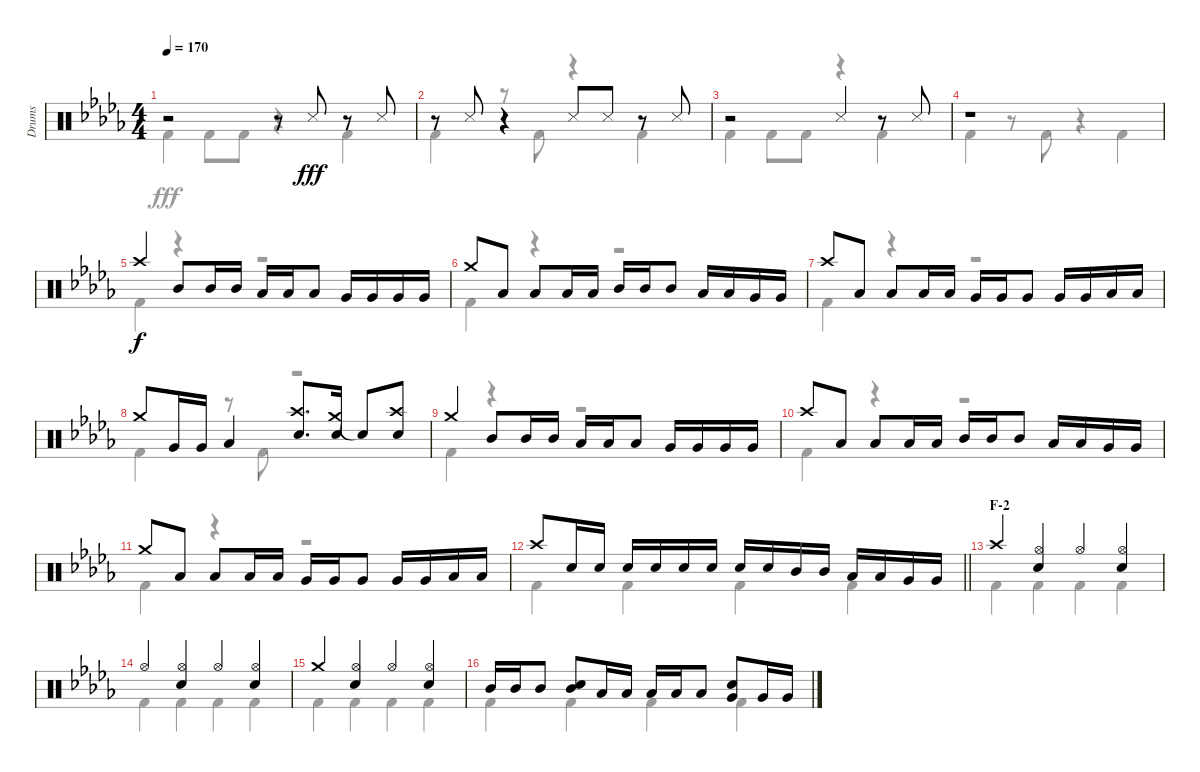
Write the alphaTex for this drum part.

\track ("Drums" "Drums") {instrument percussion}
\staff {score}
\articulation defaults
\voice
\ts (4 4)
\tempo 170
\clef neutral
\ks db
r.2{dy fff} r.8 "Snare (side stick) 3".8 r.8 "Snare (side stick) 3".8 |
r.8 "Snare (side stick) 3".8 r.4 "Snare (side stick) 3".8 "Snare (side stick) 3".8 r.8 "Snare (side stick) 3".8 |
r.2 "Snare (side stick) 3".4 r.8 "Snare (side stick) 3".8 |
r.1 |
"Crash high (hit)".4{dy f} "Mid Tom (hit)".8 "Mid Tom (hit)".16 "Mid Tom (hit)".16 "Low Tom (hit)".16 "Low Tom (hit)".16 "Low Tom (hit)".8 "Very Low Tom (hit)".16 "Very Low Tom (hit)".16 "Very Low Tom (hit)".16 "Very Low Tom (hit)".16 |
"Crash medium (hit)".8 "Low Tom (hit)".8 "Low Tom (hit)".8 "Low Tom (hit)".16 "Low Tom (hit)".16 "Mid Tom (hit)".16 "Mid Tom (hit)".16 "Mid Tom (hit)".8 "Low Tom (hit)".16 "Low Tom (hit)".16 "Very Low Tom (hit)".16 "Very Low Tom (hit)".16 |
"Crash high (hit)".8 "Low Tom (hit)".8 "Low Tom (hit)".8 "Low Tom (hit)".16 "Low Tom (hit)".16 "Very Low Tom (hit)".16 "Very Low Tom (hit)".16 "Very Low Tom (hit)".8 "Very Low Tom (hit)".16 "Very Low Tom (hit)".16 "Low Tom (hit)".16 "Low Tom (hit)".16 |
"Crash medium (hit)".8 "Very Low Tom (hit)".16 "Very Low Tom (hit)".16 "Low Tom (hit)".4 ("Crash high (hit)" "Snare (hit) 2").8{d} ("Crash medium (hit)" "Snare (hit) 2").16 "Snare (hit)"{t}.8 ("Crash high (hit)" "Snare (hit) 2").8 |
"Crash medium (hit)".4 "Mid Tom (hit)".8 "Mid Tom (hit)".16 "Mid Tom (hit)".16 "Low Tom (hit)".16 "Low Tom (hit)".16 "Low Tom (hit)".8 "Very Low Tom (hit)".16 "Very Low Tom (hit)".16 "Very Low Tom (hit)".16 "Very Low Tom (hit)".16 |
"Crash high (hit)".8 "Low Tom (hit)".8 "Low Tom (hit)".8 "Low Tom (hit)".16 "Low Tom (hit)".16 "Mid Tom (hit)".16 "Mid Tom (hit)".16 "Mid Tom (hit)".8 "Low Tom (hit)".16 "Low Tom (hit)".16 "Very Low Tom (hit)".16 "Very Low Tom (hit)".16 |
"Crash medium (hit)".8 "Low Tom (hit)".8 "Low Tom (hit)".8 "Low Tom (hit)".16 "Low Tom (hit)".16 "Very Low Tom (hit)".16 "Very Low Tom (hit)".16 "Very Low Tom (hit)".8 "Very Low Tom (hit)".16 "Very Low Tom (hit)".16 "Low Tom (hit)".16 "Low Tom (hit)".16 |
\barLineRight lightlight "Crash high (hit)".8 "Snare (hit) 2".16 "Snare (hit) 2".16 "Snare (hit) 2".16 "Snare (hit) 2".16 "Snare (hit) 2".16 "Snare (hit) 2".16 "Snare (hit) 2".16 "Snare (hit) 2".16 "Mid Tom (hit)".16 "Mid Tom (hit)".16 "Low Tom (hit)".16 "Low Tom (hit)".16 "Very Low Tom (hit)".16 "Very Low Tom (hit)".16
|
\section ("" "F-2")
"Crash high (hit)".4 ("Hi-Hat (open)" "Snare (hit) 2").4 "Hi-Hat (open)".4 ("Hi-Hat (open)" "Snare (hit) 2").4 |
"Hi-Hat (open)".4 ("Hi-Hat (open)" "Snare (hit) 2").4 "Hi-Hat (open)".4 ("Hi-Hat (open)" "Snare (hit) 2").4 |
"Crash medium (hit)".4 ("Hi-Hat (open)" "Snare (hit) 2").4 "Hi-Hat (open)".4 ("Hi-Hat (open)" "Snare (hit) 2").4 |
"Mid Tom (hit)".16 "Mid Tom (hit)".16 "Mid Tom (hit)".8 ("Mid Tom (hit)" "Snare (hit) 2").8 "Low Tom (hit)".16 "Low Tom (hit)".16 "Low Tom (hit)".16 "Low Tom (hit)".16 "Low Tom (hit)".8 ("Snare (hit) 2" "Very Low Tom (hit)").8 "Very Low Tom (hit)".16 "Very Low Tom (hit)".16
\voice
\clef neutral
\ottava regular
\simile none
\ks db "Kick (hit) 2".4{dy fff} "Kick (hit) 2".8 "Kick (hit) 2".8
r.4 "Kick (hit) 2".4 |
"Kick (hit) 2".4 r.8 "Kick (hit) 2".8 r.4 "Kick (hit) 2".4 |
"Kick (hit) 2".4 "Kick (hit) 2".8 "Kick (hit) 2".8 r.4 "Kick (hit) 2".4 |
"Kick (hit) 2".4 r.8 "Kick (hit) 2".8 r.4 "Kick (hit) 2".4 |
"Kick (hit) 2".4 r.4 r.2 |
"Kick (hit) 2".4 r.4 r.2 |
"Kick (hit) 2".4 r.4 r.2 |
"Kick (hit) 2".4 r.8 "Kick (hit) 2".8 r.2 |
"Kick (hit) 2".4 r.4 r.2 |
"Kick (hit) 2".4 r.4 r.2 |
"Kick (hit) 2".4 r.4 r.2 |
\barLineRight lightlight "Kick (hit) 2".4 "Kick (hit) 2".4 "Kick (hit) 2".4 "Kick (hit) 2".4
|
"Kick (hit) 2".4 "Kick (hit) 2".4 "Kick (hit) 2".4 "Kick (hit) 2".4 |
"Kick (hit) 2".4 "Kick (hit) 2".4 "Kick (hit) 2".4 "Kick (hit) 2".4 |
"Kick (hit) 2".4 "Kick (hit) 2".4 "Kick (hit) 2".4 "Kick (hit) 2".4 |
"Kick (hit) 2".4 "Kick (hit) 2".4 "Kick (hit) 2".4 "Kick (hit) 2".4
